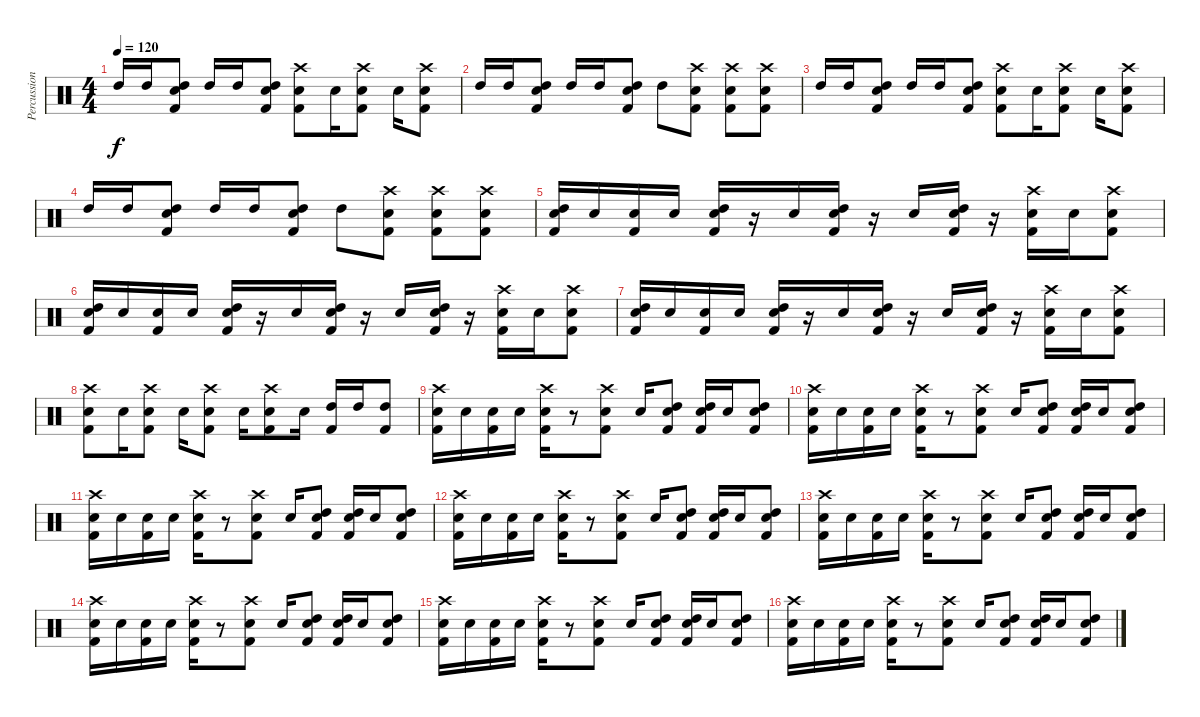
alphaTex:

\track ("Percussion" "Percussion") {instrument percussion}
\staff {score}
\articulation defaults
\ts (4 4)
\tempo 120
\clef neutral
\ks c "High Tom (hit)".16{dy f} "High Tom (hit)".16
("Electric Snare (hit)" "High Tom (hit)" "Kick (hit) 2").8 "High Tom (hit)".16 "High Tom (hit)".16 ("Electric Snare (hit)" "High Tom (hit)" "Kick (hit) 2").8 ("Crash high (hit)" "Electric Snare (hit)" "Kick (hit) 2").8 "Electric Snare (hit)".16 ("Crash high (hit)" "Electric Snare (hit)" "Kick (hit) 2").8 "Electric Snare (hit)".16 ("Crash high (hit)" "Electric Snare (hit)" "Kick (hit) 2").8 |
"High Tom (hit)".16 "High Tom (hit)".16 ("Electric Snare (hit)" "High Tom (hit)" "Kick (hit) 2").8 "High Tom (hit)".16 "High Tom (hit)".16 ("Electric Snare (hit)" "High Tom (hit)" "Kick (hit) 2").8 "High Tom (hit)".8 ("Electric Snare (hit)" "Crash high (hit)" "Kick (hit) 2").8 ("Electric Snare (hit)" "Crash high (hit)" "Kick (hit) 2").8 ("Electric Snare (hit)" "Crash high (hit)" "Kick (hit) 2").8 |
"High Tom (hit)".16 "High Tom (hit)".16 ("Electric Snare (hit)" "High Tom (hit)" "Kick (hit) 2").8 "High Tom (hit)".16 "High Tom (hit)".16 ("Electric Snare (hit)" "High Tom (hit)" "Kick (hit) 2").8 ("Crash high (hit)" "Electric Snare (hit)" "Kick (hit) 2").8 "Electric Snare (hit)".16 ("Crash high (hit)" "Electric Snare (hit)" "Kick (hit) 2").8 "Electric Snare (hit)".16 ("Crash high (hit)" "Electric Snare (hit)" "Kick (hit) 2").8 |
"High Tom (hit)".16 "High Tom (hit)".16 ("Electric Snare (hit)" "High Tom (hit)" "Kick (hit) 2").8 "High Tom (hit)".16 "High Tom (hit)".16 ("Electric Snare (hit)" "High Tom (hit)" "Kick (hit) 2").8 "High Tom (hit)".8 ("Electric Snare (hit)" "Crash high (hit)" "Kick (hit) 2").8 ("Electric Snare (hit)" "Crash high (hit)" "Kick (hit) 2").8 ("Electric Snare (hit)" "Crash high (hit)" "Kick (hit) 2").8 |
("High Tom (hit)" "Electric Snare (hit)" "Kick (hit) 2").16 "Electric Snare (hit)".16 ("Electric Snare (hit)" "Kick (hit) 2").16 "Electric Snare (hit)".16 ("High Tom (hit)" "Electric Snare (hit)" "Kick (hit) 2").16 r.16 "Electric Snare (hit)".16 ("High Tom (hit)" "Electric Snare (hit)" "Kick (hit) 2").16 r.16 "Electric Snare (hit)".16 ("High Tom (hit)" "Electric Snare (hit)" "Kick (hit) 2").16 r.16 ("Crash high (hit)" "Electric Snare (hit)" "Kick (hit) 2").16 "Electric Snare (hit)".16 ("Crash high (hit)" "Electric Snare (hit)" "Kick (hit) 2").8 |
("High Tom (hit)" "Electric Snare (hit)" "Kick (hit) 2").16 "Electric Snare (hit)".16 ("Electric Snare (hit)" "Kick (hit) 2").16 "Electric Snare (hit)".16 ("High Tom (hit)" "Electric Snare (hit)" "Kick (hit) 2").16 r.16 "Electric Snare (hit)".16 ("High Tom (hit)" "Electric Snare (hit)" "Kick (hit) 2").16 r.16 "Electric Snare (hit)".16 ("High Tom (hit)" "Electric Snare (hit)" "Kick (hit) 2").16 r.16 ("Crash high (hit)" "Electric Snare (hit)" "Kick (hit) 2").16 "Electric Snare (hit)".16 ("Crash high (hit)" "Electric Snare (hit)" "Kick (hit) 2").8 |
("High Tom (hit)" "Electric Snare (hit)" "Kick (hit) 2").16 "Electric Snare (hit)".16 ("Electric Snare (hit)" "Kick (hit) 2").16 "Electric Snare (hit)".16 ("High Tom (hit)" "Electric Snare (hit)" "Kick (hit) 2").16 r.16 "Electric Snare (hit)".16 ("High Tom (hit)" "Electric Snare (hit)" "Kick (hit) 2").16 r.16 "Electric Snare (hit)".16 ("High Tom (hit)" "Electric Snare (hit)" "Kick (hit) 2").16 r.16 ("Crash high (hit)" "Electric Snare (hit)" "Kick (hit) 2").16 "Electric Snare (hit)".16 ("Crash high (hit)" "Electric Snare (hit)" "Kick (hit) 2").8 |
("Crash high (hit)" "Electric Snare (hit)" "Kick (hit) 2").8 "Electric Snare (hit)".16 ("Crash high (hit)" "Electric Snare (hit)" "Kick (hit) 2").8 "Electric Snare (hit)".16 ("Crash high (hit)" "Electric Snare (hit)" "Kick (hit) 2").8 "Electric Snare (hit)".16 ("Crash high (hit)" "Electric Snare (hit)" "Kick (hit) 2").8 "Electric Snare (hit)".16 ("High Tom (hit)" "Kick (hit) 2").16 "High Tom (hit)".16 ("High Tom (hit)" "Kick (hit) 2").8 |
("Crash high (hit)" "Electric Snare (hit)" "Kick (hit) 2").16 "Electric Snare (hit)".16 ("Electric Snare (hit)" "Kick (hit) 2").16 "Electric Snare (hit)".16 ("Crash high (hit)" "Electric Snare (hit)" "Kick (hit) 2").16 r.8 ("Crash high (hit)" "Electric Snare (hit)" "Kick (hit) 2").8 "Electric Snare (hit)".16 ("High Tom (hit)" "Electric Snare (hit)" "Kick (hit) 2").8 ("High Tom (hit)" "Electric Snare (hit)" "Kick (hit) 2").16 "Electric Snare (hit)".16 ("High Tom (hit)" "Electric Snare (hit)" "Kick (hit) 2").8 |
("Crash high (hit)" "Electric Snare (hit)" "Kick (hit) 2").16 "Electric Snare (hit)".16 ("Electric Snare (hit)" "Kick (hit) 2").16 "Electric Snare (hit)".16 ("Crash high (hit)" "Electric Snare (hit)" "Kick (hit) 2").16 r.8 ("Crash high (hit)" "Electric Snare (hit)" "Kick (hit) 2").8 "Electric Snare (hit)".16 ("High Tom (hit)" "Electric Snare (hit)" "Kick (hit) 2").8 ("High Tom (hit)" "Electric Snare (hit)" "Kick (hit) 2").16 "Electric Snare (hit)".16 ("High Tom (hit)" "Electric Snare (hit)" "Kick (hit) 2").8 |
("Crash high (hit)" "Electric Snare (hit)" "Kick (hit) 2").16 "Electric Snare (hit)".16 ("Electric Snare (hit)" "Kick (hit) 2").16 "Electric Snare (hit)".16 ("Crash high (hit)" "Electric Snare (hit)" "Kick (hit) 2").16 r.8 ("Crash high (hit)" "Electric Snare (hit)" "Kick (hit) 2").8 "Electric Snare (hit)".16 ("High Tom (hit)" "Electric Snare (hit)" "Kick (hit) 2").8 ("High Tom (hit)" "Electric Snare (hit)" "Kick (hit) 2").16 "Electric Snare (hit)".16 ("High Tom (hit)" "Electric Snare (hit)" "Kick (hit) 2").8 |
("Crash high (hit)" "Electric Snare (hit)" "Kick (hit) 2").16 "Electric Snare (hit)".16 ("Electric Snare (hit)" "Kick (hit) 2").16 "Electric Snare (hit)".16 ("Crash high (hit)" "Electric Snare (hit)" "Kick (hit) 2").16 r.8 ("Crash high (hit)" "Electric Snare (hit)" "Kick (hit) 2").8 "Electric Snare (hit)".16 ("High Tom (hit)" "Electric Snare (hit)" "Kick (hit) 2").8 ("High Tom (hit)" "Electric Snare (hit)" "Kick (hit) 2").16 "Electric Snare (hit)".16 ("High Tom (hit)" "Electric Snare (hit)" "Kick (hit) 2").8 |
("Crash high (hit)" "Electric Snare (hit)" "Kick (hit) 2").16 "Electric Snare (hit)".16 ("Electric Snare (hit)" "Kick (hit) 2").16 "Electric Snare (hit)".16 ("Crash high (hit)" "Electric Snare (hit)" "Kick (hit) 2").16 r.8 ("Crash high (hit)" "Electric Snare (hit)" "Kick (hit) 2").8 "Electric Snare (hit)".16 ("High Tom (hit)" "Electric Snare (hit)" "Kick (hit) 2").8 ("High Tom (hit)" "Electric Snare (hit)" "Kick (hit) 2").16 "Electric Snare (hit)".16 ("High Tom (hit)" "Electric Snare (hit)" "Kick (hit) 2").8 |
("Crash high (hit)" "Electric Snare (hit)" "Kick (hit) 2").16 "Electric Snare (hit)".16 ("Electric Snare (hit)" "Kick (hit) 2").16 "Electric Snare (hit)".16 ("Crash high (hit)" "Electric Snare (hit)" "Kick (hit) 2").16 r.8 ("Crash high (hit)" "Electric Snare (hit)" "Kick (hit) 2").8 "Electric Snare (hit)".16 ("High Tom (hit)" "Electric Snare (hit)" "Kick (hit) 2").8 ("High Tom (hit)" "Electric Snare (hit)" "Kick (hit) 2").16 "Electric Snare (hit)".16 ("High Tom (hit)" "Electric Snare (hit)" "Kick (hit) 2").8 |
("Crash high (hit)" "Electric Snare (hit)" "Kick (hit) 2").16 "Electric Snare (hit)".16 ("Electric Snare (hit)" "Kick (hit) 2").16 "Electric Snare (hit)".16 ("Crash high (hit)" "Electric Snare (hit)" "Kick (hit) 2").16 r.8 ("Crash high (hit)" "Electric Snare (hit)" "Kick (hit) 2").8 "Electric Snare (hit)".16 ("High Tom (hit)" "Electric Snare (hit)" "Kick (hit) 2").8 ("High Tom (hit)" "Electric Snare (hit)" "Kick (hit) 2").16 "Electric Snare (hit)".16 ("High Tom (hit)" "Electric Snare (hit)" "Kick (hit) 2").8 |
("Crash high (hit)" "Electric Snare (hit)" "Kick (hit) 2").16 "Electric Snare (hit)".16 ("Electric Snare (hit)" "Kick (hit) 2").16 "Electric Snare (hit)".16 ("Crash high (hit)" "Electric Snare (hit)" "Kick (hit) 2").16 r.8 ("Crash high (hit)" "Electric Snare (hit)" "Kick (hit) 2").8 "Electric Snare (hit)".16 ("High Tom (hit)" "Electric Snare (hit)" "Kick (hit) 2").8 ("High Tom (hit)" "Electric Snare (hit)" "Kick (hit) 2").16 "Electric Snare (hit)".16 ("High Tom (hit)" "Electric Snare (hit)" "Kick (hit) 2").8
